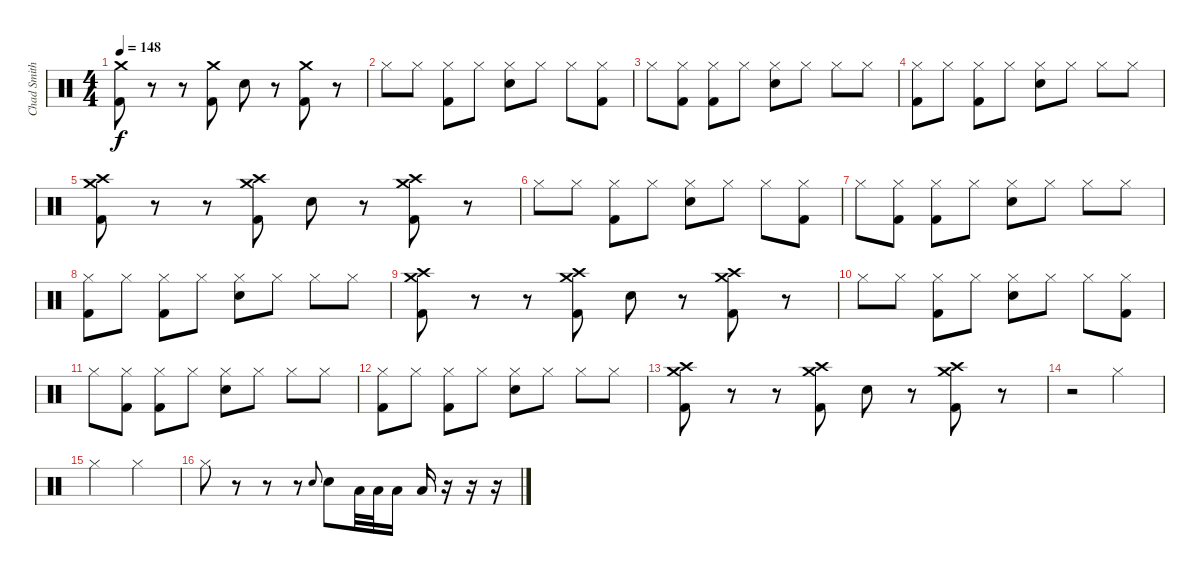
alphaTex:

\track ("Chad Smith" "Chad Smith") {instrument percussion}
\staff {score}
\articulation defaults
\ts (4 4)
\tempo 148
\clef neutral
\ks c
("Crash medium (hit)" "Kick (hit) 2").8{dy f} r.8 r.8 ("Crash medium (hit)" "Kick (hit) 2").8 "Snare (hit) 2".8 r.8 ("Crash medium (hit)" "Kick (hit) 2").8 r.8 |
"Hi-Hat (closed)".8 "Hi-Hat (closed)".8 ("Hi-Hat (closed)" "Kick (hit) 2").8 "Hi-Hat (closed)".8 ("Hi-Hat (closed)" "Snare (hit) 2").8 "Hi-Hat (closed)".8 "Hi-Hat (closed)".8 ("Hi-Hat (closed)" "Kick (hit) 2").8 |
"Hi-Hat (closed)".8 ("Hi-Hat (closed)" "Kick (hit) 2").8 ("Hi-Hat (closed)" "Kick (hit) 2").8 "Hi-Hat (closed)".8 ("Hi-Hat (closed)" "Snare (hit) 2").8 "Hi-Hat (closed)".8 "Hi-Hat (closed)".8 "Hi-Hat (closed)".8 |
("Hi-Hat (closed)" "Kick (hit) 2").8 "Hi-Hat (closed)".8 ("Hi-Hat (closed)" "Kick (hit) 2").8 "Hi-Hat (closed)".8 ("Hi-Hat (closed)" "Snare (hit) 2").8 "Hi-Hat (closed)".8 "Hi-Hat (closed)".8 "Hi-Hat (closed)".8 |
("Crash medium (hit)" "Crash high (hit)" "Kick (hit) 2").8 r.8 r.8 ("Crash medium (hit)" "Crash high (hit)" "Kick (hit) 2").8 "Snare (hit) 2".8 r.8 ("Crash medium (hit)" "Crash high (hit)" "Kick (hit) 2").8 r.8 |
"Hi-Hat (closed)".8 "Hi-Hat (closed)".8 ("Hi-Hat (closed)" "Kick (hit) 2").8 "Hi-Hat (closed)".8 ("Hi-Hat (closed)" "Snare (hit) 2").8 "Hi-Hat (closed)".8 "Hi-Hat (closed)".8 ("Hi-Hat (closed)" "Kick (hit) 2").8 |
"Hi-Hat (closed)".8 ("Hi-Hat (closed)" "Kick (hit) 2").8 ("Hi-Hat (closed)" "Kick (hit) 2").8 "Hi-Hat (closed)".8 ("Hi-Hat (closed)" "Snare (hit) 2").8 "Hi-Hat (closed)".8 "Hi-Hat (closed)".8 "Hi-Hat (closed)".8 |
("Hi-Hat (closed)" "Kick (hit) 2").8 "Hi-Hat (closed)".8 ("Hi-Hat (closed)" "Kick (hit) 2").8 "Hi-Hat (closed)".8 ("Hi-Hat (closed)" "Snare (hit) 2").8 "Hi-Hat (closed)".8 "Hi-Hat (closed)".8 "Hi-Hat (closed)".8 |
("Crash medium (hit)" "Crash high (hit)" "Kick (hit) 2").8 r.8 r.8 ("Crash medium (hit)" "Crash high (hit)" "Kick (hit) 2").8 "Snare (hit) 2".8 r.8 ("Crash medium (hit)" "Crash high (hit)" "Kick (hit) 2").8 r.8 |
"Hi-Hat (closed)".8 "Hi-Hat (closed)".8 ("Hi-Hat (closed)" "Kick (hit) 2").8 "Hi-Hat (closed)".8 ("Hi-Hat (closed)" "Snare (hit) 2").8 "Hi-Hat (closed)".8 "Hi-Hat (closed)".8 ("Hi-Hat (closed)" "Kick (hit) 2").8 |
"Hi-Hat (closed)".8 ("Hi-Hat (closed)" "Kick (hit) 2").8 ("Hi-Hat (closed)" "Kick (hit) 2").8 "Hi-Hat (closed)".8 ("Hi-Hat (closed)" "Snare (hit) 2").8 "Hi-Hat (closed)".8 "Hi-Hat (closed)".8 "Hi-Hat (closed)".8 |
("Hi-Hat (closed)" "Kick (hit) 2").8 "Hi-Hat (closed)".8 ("Hi-Hat (closed)" "Kick (hit) 2").8 "Hi-Hat (closed)".8 ("Hi-Hat (closed)" "Snare (hit) 2").8 "Hi-Hat (closed)".8 "Hi-Hat (closed)".8 "Hi-Hat (closed)".8 |
("Crash medium (hit)" "Crash high (hit)" "Kick (hit) 2").8 r.8 r.8 ("Crash medium (hit)" "Crash high (hit)" "Kick (hit) 2").8 "Snare (hit) 2".8 r.8 ("Crash medium (hit)" "Crash high (hit)" "Kick (hit) 2").8 r.8 |
r.2 "Hi-Hat (closed)".2 |
"Hi-Hat (closed)".2 "Hi-Hat (closed)".2 |
"Hi-Hat (closed)".8 r.8 r.8 r.8 "Snare (hit) 2".8{gr onbeat} "Snare (hit) 2".8 "Low Floor Tom (hit)".32 "Low Floor Tom (hit)".32 "Low Floor Tom (hit)".16 "Low Floor Tom (hit)".16 r.16 r.16 r.16
